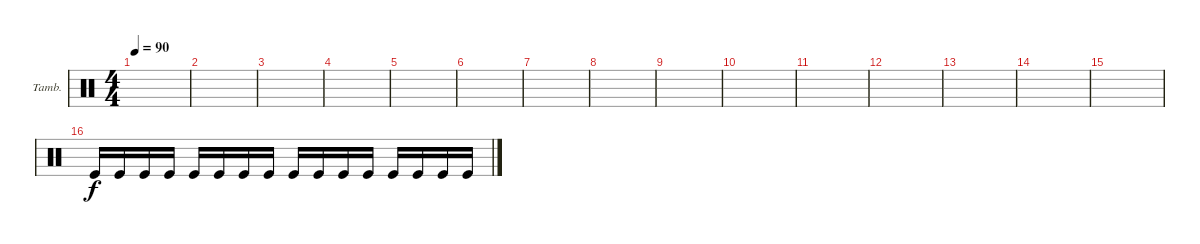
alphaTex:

\defaultSystemsLayout 4
\bracketExtendMode groupsimilarinstruments
\firstSystemTrackNameOrientation horizontal
\otherSystemsTrackNameOrientation horizontal
\track ("Tambourine" "Tamb.") {instrument percussion}
\staff {score}
\articulation defaults
\ts (4 4)
\tempo 90
\clef neutral
\ks c
|
|
|
|
|
|
|
|
|
|
|
|
|
|
|
"Kick (hit)".16 "Kick (hit)".16 "Kick (hit)".16 "Kick (hit)".16 "Kick (hit)".16 "Kick (hit)".16 "Kick (hit)".16 "Kick (hit)".16 "Kick (hit)".16 "Kick (hit)".16 "Kick (hit)".16 "Kick (hit)".16 "Kick (hit)".16 "Kick (hit)".16 "Kick (hit)".16 "Kick (hit)".16
